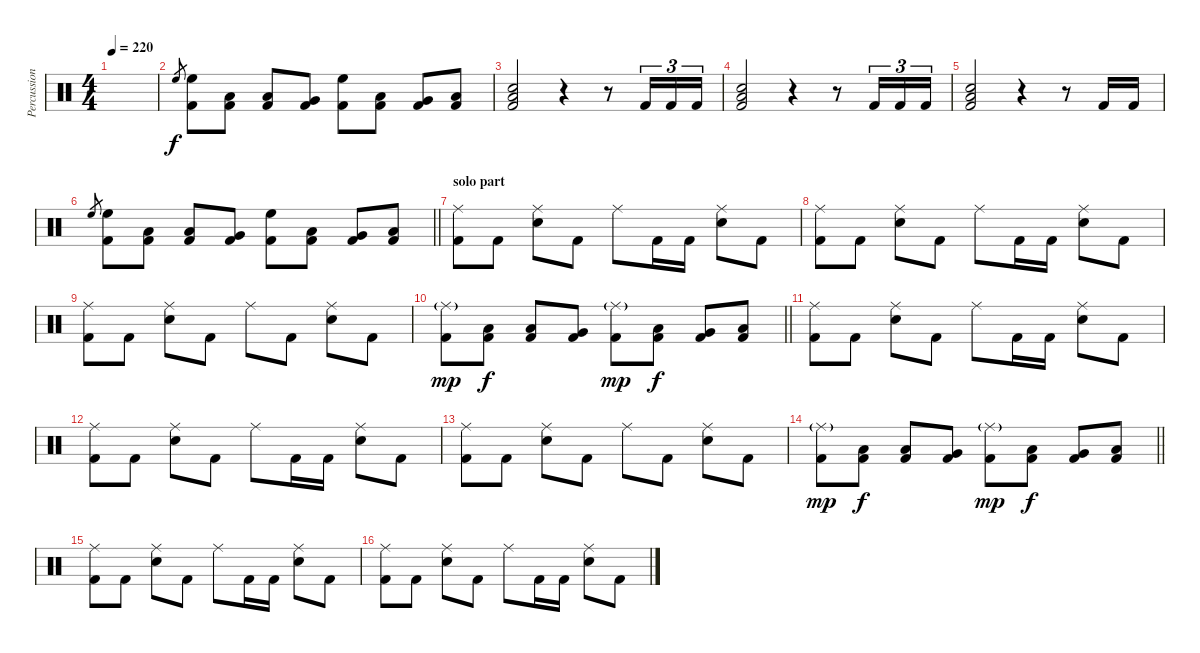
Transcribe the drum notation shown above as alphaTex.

\track ("Percussion" "Percussion") {instrument percussion}
\staff {score}
\articulation defaults
\ts (4 4)
\tempo 220
\clef neutral
\ks c
|
"High Floor Tom (hit)".8{gr} ("High Floor Tom (hit)" "Kick (hit) 2").8 ("Low Tom (hit)" "Kick (hit) 2").8 ("Low Tom (hit)" "Kick (hit) 2").8 ("Very Low Tom (hit)" "Kick (hit) 2").8 ("High Floor Tom (hit)" "Kick (hit) 2").8 ("Low Tom (hit)" "Kick (hit) 2").8 ("Very Low Tom (hit)" "Kick (hit) 2").8 ("Low Floor Tom (hit)" "Kick (hit) 2").8 |
("Electric Snare (hit)" "Low Floor Tom (hit)" "Kick (hit) 2").2 r.4 r.8 "Kick (hit) 2".16{tu (3 2)} "Kick (hit) 2".16{tu (3 2)} "Kick (hit) 2".16{tu (3 2)} |
("Electric Snare (hit)" "Low Floor Tom (hit)" "Kick (hit) 2").2 r.4 r.8 "Kick (hit) 2".16{tu (3 2)} "Kick (hit) 2".16{tu (3 2)} "Kick (hit) 2".16{tu (3 2)} |
("Electric Snare (hit)" "Low Floor Tom (hit)" "Kick (hit) 2").2 r.4 r.8 "Kick (hit) 2".16 "Kick (hit) 2".16 |
\barLineRight lightlight "High Floor Tom (hit)".8{gr}
("High Floor Tom (hit)" "Kick (hit) 2").8 ("Low Tom (hit)" "Kick (hit) 2").8 ("Low Tom (hit)" "Kick (hit) 2").8 ("Very Low Tom (hit)" "Kick (hit) 2").8 ("High Floor Tom (hit)" "Kick (hit) 2").8 ("Low Tom (hit)" "Kick (hit) 2").8 ("Very Low Tom (hit)" "Kick (hit) 2").8 ("Low Floor Tom (hit)" "Kick (hit) 2").8 |
\section ("" "solo part ")
("Ride (middle)" "Kick (hit) 2").8 "Kick (hit) 2".8 ("Ride (middle)" "Electric Snare (hit)").8 "Kick (hit) 2".8 "Ride (middle)".8 "Kick (hit) 2".16 "Kick (hit) 2".16 ("Ride (middle)" "Electric Snare (hit)").8 "Kick (hit) 2".8 |
("Ride (middle)" "Kick (hit) 2").8 "Kick (hit) 2".8 ("Ride (middle)" "Electric Snare (hit)").8 "Kick (hit) 2".8 "Ride (middle)".8 "Kick (hit) 2".16 "Kick (hit) 2".16 ("Ride (middle)" "Electric Snare (hit)").8 "Kick (hit) 2".8 |
("Ride (middle)" "Kick (hit) 2").8 "Kick (hit) 2".8 ("Ride (middle)" "Electric Snare (hit)").8 "Kick (hit) 2".8 "Ride (middle)".8 "Kick (hit) 2".8 ("Ride (middle)" "Electric Snare (hit)").8 "Kick (hit) 2".8 |
\barLineRight lightlight
("Ride (middle)"{g} "Kick (hit) 2").8{dy mp} ("Low Tom (hit)" "Kick (hit) 2").8{dy f} ("Low Tom (hit)" "Kick (hit) 2").8 ("Very Low Tom (hit)" "Kick (hit) 2").8 ("Ride (middle)"{g} "Kick (hit) 2").8{dy mp} ("Low Tom (hit)" "Kick (hit) 2").8{dy f} ("Very Low Tom (hit)" "Kick (hit) 2").8 ("Low Floor Tom (hit)" "Kick (hit) 2").8 |
("Ride (middle)" "Kick (hit) 2").8 "Kick (hit) 2".8 ("Ride (middle)" "Electric Snare (hit)").8 "Kick (hit) 2".8 "Ride (middle)".8 "Kick (hit) 2".16 "Kick (hit) 2".16 ("Ride (middle)" "Electric Snare (hit)").8 "Kick (hit) 2".8 |
("Ride (middle)" "Kick (hit) 2").8 "Kick (hit) 2".8 ("Ride (middle)" "Electric Snare (hit)").8 "Kick (hit) 2".8 "Ride (middle)".8 "Kick (hit) 2".16 "Kick (hit) 2".16 ("Ride (middle)" "Electric Snare (hit)").8 "Kick (hit) 2".8 |
("Ride (middle)" "Kick (hit) 2").8 "Kick (hit) 2".8 ("Ride (middle)" "Electric Snare (hit)").8 "Kick (hit) 2".8 "Ride (middle)".8 "Kick (hit) 2".8 ("Ride (middle)" "Electric Snare (hit)").8 "Kick (hit) 2".8 |
\barLineRight lightlight
("Ride (middle)"{g} "Kick (hit) 2").8{dy mp} ("Low Tom (hit)" "Kick (hit) 2").8{dy f} ("Low Tom (hit)" "Kick (hit) 2").8 ("Very Low Tom (hit)" "Kick (hit) 2").8 ("Ride (middle)"{g} "Kick (hit) 2").8{dy mp} ("Low Tom (hit)" "Kick (hit) 2").8{dy f} ("Very Low Tom (hit)" "Kick (hit) 2").8 ("Low Floor Tom (hit)" "Kick (hit) 2").8 |
("Ride (middle)" "Kick (hit) 2").8 "Kick (hit) 2".8 ("Ride (middle)" "Electric Snare (hit)").8 "Kick (hit) 2".8 "Ride (middle)".8 "Kick (hit) 2".16 "Kick (hit) 2".16 ("Ride (middle)" "Electric Snare (hit)").8 "Kick (hit) 2".8 |
("Ride (middle)" "Kick (hit) 2").8 "Kick (hit) 2".8 ("Ride (middle)" "Electric Snare (hit)").8 "Kick (hit) 2".8 "Ride (middle)".8 "Kick (hit) 2".16 "Kick (hit) 2".16 ("Ride (middle)" "Electric Snare (hit)").8 "Kick (hit) 2".8
